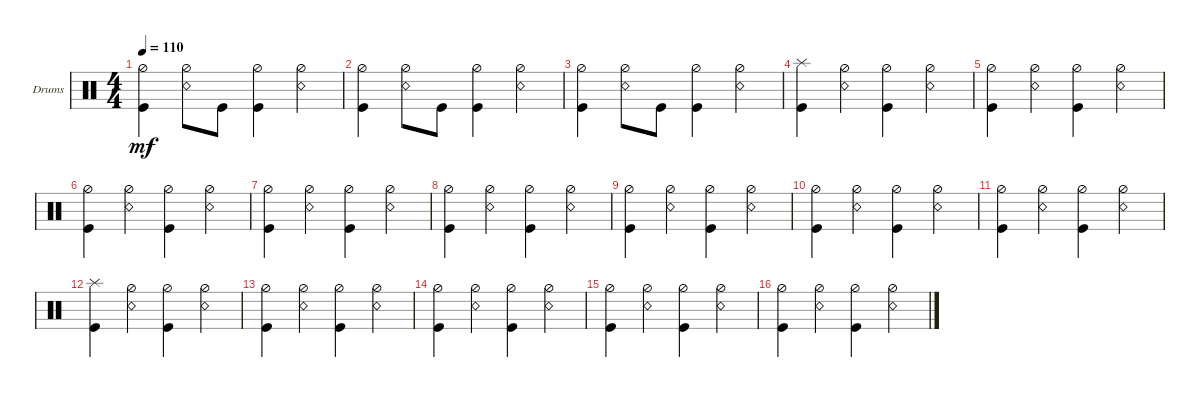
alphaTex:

\bracketExtendMode groupsimilarinstruments
\firstSystemTrackNameOrientation horizontal
\otherSystemsTrackNameOrientation horizontal
\track ("Drumkit" "Drums") {instrument percussion}
\staff {score}
\articulation defaults
\ts (4 4)
\tempo 110
\clef neutral
\ks c
("Kick (hit)" "Hi-Hat (half)").4{dy mf} ("Snare (rim shot)" "Hi-Hat (half)").8 "Kick (hit)".8 ("Kick (hit)" "Hi-Hat (half)").4 ("Snare (rim shot)" "Hi-Hat (half)").4 |
("Kick (hit)" "Hi-Hat (half)").4 ("Snare (rim shot)" "Hi-Hat (half)").8 "Kick (hit)".8 ("Kick (hit)" "Hi-Hat (half)").4 ("Snare (rim shot)" "Hi-Hat (half)").4 |
("Kick (hit)" "Hi-Hat (half)").4 ("Snare (rim shot)" "Hi-Hat (half)").8 "Kick (hit)".8 ("Kick (hit)" "Hi-Hat (half)").4 ("Snare (rim shot)" "Hi-Hat (half)").4 |
("Kick (hit)" "Splash (hit)").4 ("Snare (rim shot)" "Hi-Hat (half)").4 ("Kick (hit)" "Hi-Hat (half)").4 ("Snare (rim shot)" "Hi-Hat (half)").4 |
("Kick (hit)" "Hi-Hat (half)").4 ("Snare (rim shot)" "Hi-Hat (half)").4 ("Kick (hit)" "Hi-Hat (half)").4 ("Snare (rim shot)" "Hi-Hat (half)").4 |
("Kick (hit)" "Hi-Hat (half)").4 ("Snare (rim shot)" "Hi-Hat (half)").4 ("Kick (hit)" "Hi-Hat (half)").4 ("Snare (rim shot)" "Hi-Hat (half)").4 |
("Kick (hit)" "Hi-Hat (half)").4 ("Snare (rim shot)" "Hi-Hat (half)").4 ("Kick (hit)" "Hi-Hat (half)").4 ("Snare (rim shot)" "Hi-Hat (half)").4 |
("Kick (hit)" "Hi-Hat (half)").4 ("Snare (rim shot)" "Hi-Hat (half)").4 ("Kick (hit)" "Hi-Hat (half)").4 ("Snare (rim shot)" "Hi-Hat (half)").4 |
("Kick (hit)" "Hi-Hat (half)").4 ("Snare (rim shot)" "Hi-Hat (half)").4 ("Kick (hit)" "Hi-Hat (half)").4 ("Snare (rim shot)" "Hi-Hat (half)").4 |
("Kick (hit)" "Hi-Hat (half)").4 ("Snare (rim shot)" "Hi-Hat (half)").4 ("Kick (hit)" "Hi-Hat (half)").4 ("Snare (rim shot)" "Hi-Hat (half)").4 |
("Kick (hit)" "Hi-Hat (half)").4 ("Snare (rim shot)" "Hi-Hat (half)").4 ("Kick (hit)" "Hi-Hat (half)").4 ("Snare (rim shot)" "Hi-Hat (half)").4 |
("Kick (hit)" "Splash (hit)").4 ("Snare (rim shot)" "Hi-Hat (half)").4 ("Kick (hit)" "Hi-Hat (half)").4 ("Snare (rim shot)" "Hi-Hat (half)").4 |
("Kick (hit)" "Hi-Hat (half)").4 ("Snare (rim shot)" "Hi-Hat (half)").4 ("Kick (hit)" "Hi-Hat (half)").4 ("Snare (rim shot)" "Hi-Hat (half)").4 |
("Kick (hit)" "Hi-Hat (half)").4 ("Snare (rim shot)" "Hi-Hat (half)").4 ("Kick (hit)" "Hi-Hat (half)").4 ("Snare (rim shot)" "Hi-Hat (half)").4 |
("Kick (hit)" "Hi-Hat (half)").4 ("Snare (rim shot)" "Hi-Hat (half)").4 ("Kick (hit)" "Hi-Hat (half)").4 ("Snare (rim shot)" "Hi-Hat (half)").4 |
("Kick (hit)" "Hi-Hat (half)").4 ("Snare (rim shot)" "Hi-Hat (half)").4 ("Kick (hit)" "Hi-Hat (half)").4 ("Snare (rim shot)" "Hi-Hat (half)").4
